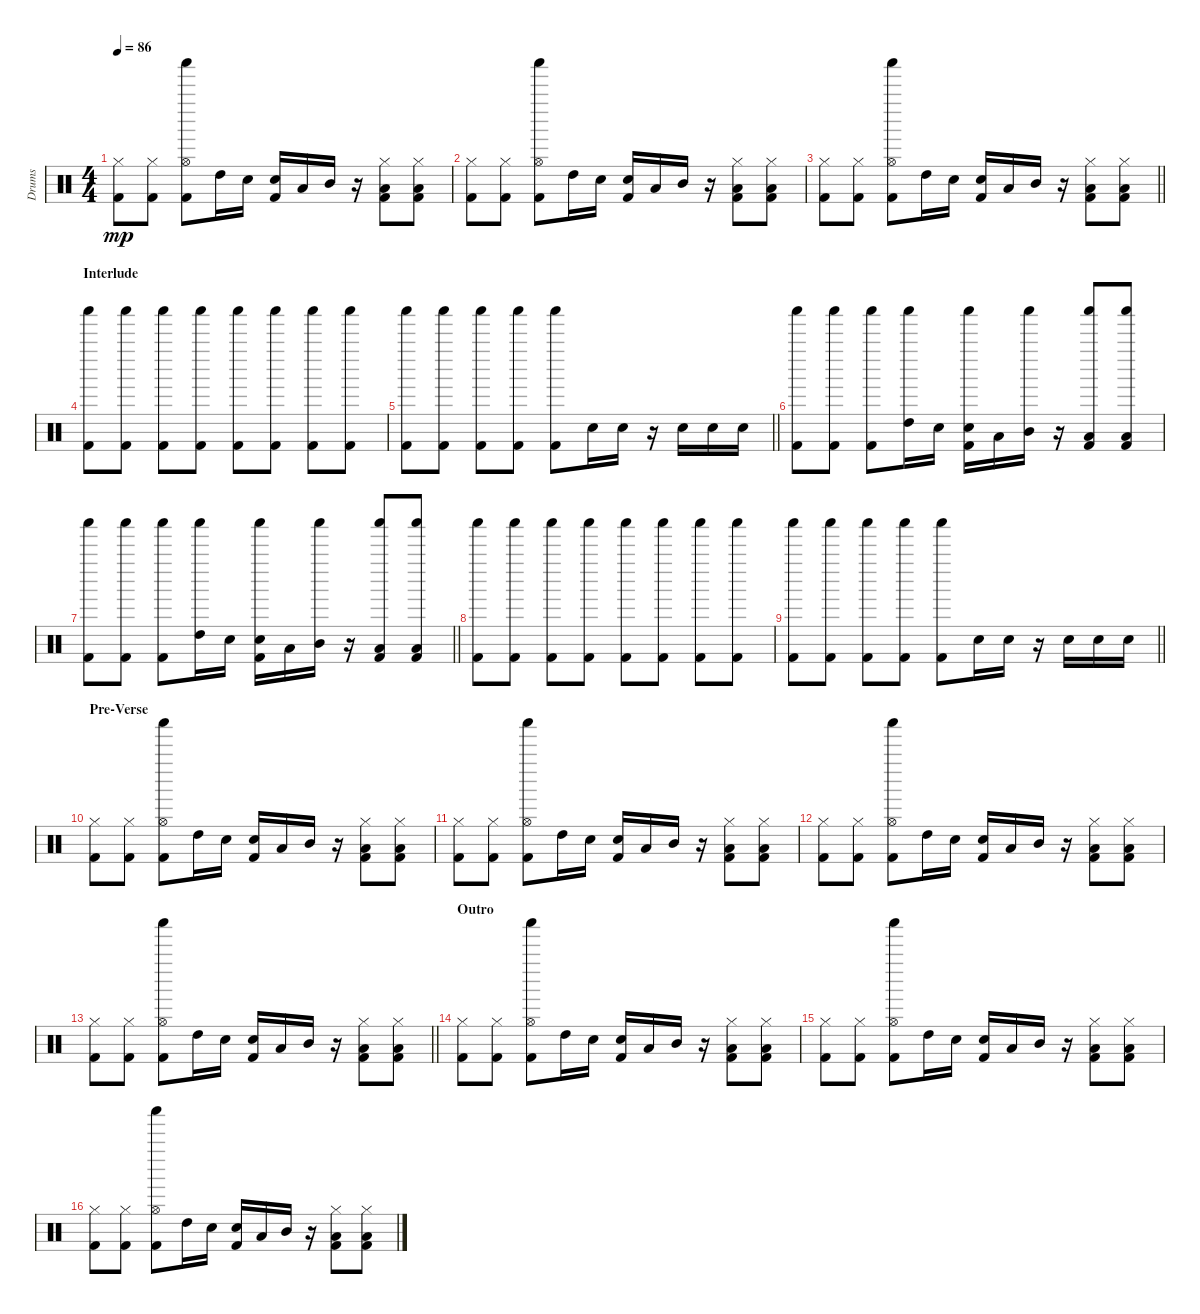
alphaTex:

\track ("Drums" "Drums") {instrument percussion}
\staff
\articulation defaults
\ts (4 4)
\tempo 86
\clef neutral
\ks c
("Hi-Hat (closed)" "Kick (hit) 2").8{dy mp} ("Hi-Hat (closed)" "Kick (hit) 2").8 ("Hi-Hat (open)" "Shaker (hit)" "Kick (hit) 2").8 "High Tom (hit)".16 "Electric Snare (hit)".16 ("Electric Snare (hit)" "Kick (hit) 2").16 "Low Tom (hit)".16 "Mid Tom (hit)".16 r.16 ("Hi-Hat (closed)" "Low Tom (hit)" "Kick (hit) 2").8 ("Hi-Hat (closed)" "Low Tom (hit)" "Kick (hit) 2").8 |
("Hi-Hat (closed)" "Kick (hit) 2").8 ("Hi-Hat (closed)" "Kick (hit) 2").8 ("Hi-Hat (open)" "Shaker (hit)" "Kick (hit) 2").8 "High Tom (hit)".16 "Electric Snare (hit)".16 ("Electric Snare (hit)" "Kick (hit) 2").16 "Low Tom (hit)".16 "Mid Tom (hit)".16 r.16 ("Hi-Hat (closed)" "Low Tom (hit)" "Kick (hit) 2").8 ("Hi-Hat (closed)" "Low Tom (hit)" "Kick (hit) 2").8 |
\barLineRight lightlight
("Hi-Hat (closed)" "Kick (hit) 2").8 ("Hi-Hat (closed)" "Kick (hit) 2").8 ("Hi-Hat (open)" "Shaker (hit)" "Kick (hit) 2").8 "High Tom (hit)".16 "Electric Snare (hit)".16 ("Electric Snare (hit)" "Kick (hit) 2").16 "Low Tom (hit)".16 "Mid Tom (hit)".16 r.16 ("Hi-Hat (closed)" "Low Tom (hit)" "Kick (hit) 2").8 ("Hi-Hat (closed)" "Low Tom (hit)" "Kick (hit) 2").8 |
\section ("" "Interlude")
("Shaker (hit)" "Kick (hit) 2").8 ("Shaker (hit)" "Kick (hit) 2").8 ("Shaker (hit)" "Kick (hit) 2").8 ("Shaker (hit)" "Kick (hit) 2").8 ("Shaker (hit)" "Kick (hit) 2").8 ("Shaker (hit)" "Kick (hit) 2").8 ("Shaker (hit)" "Kick (hit) 2").8 ("Shaker (hit)" "Kick (hit) 2").8 |
\barLineRight lightlight
("Shaker (hit)" "Kick (hit) 2").8 ("Shaker (hit)" "Kick (hit) 2").8 ("Shaker (hit)" "Kick (hit) 2").8 ("Shaker (hit)" "Kick (hit) 2").8 ("Shaker (hit)" "Kick (hit) 2").8 "Electric Snare (hit)".16 "Electric Snare (hit)".16 r.16 "Electric Snare (hit)".16 "Electric Snare (hit)".16 "Electric Snare (hit)".16 |
("Shaker (hit)" "Kick (hit) 2").8 ("Shaker (hit)" "Kick (hit) 2").8 ("Shaker (hit)" "Kick (hit) 2").8 ("Shaker (hit)" "High Tom (hit)").16 "Electric Snare (hit)".16 ("Shaker (hit)" "Electric Snare (hit)" "Kick (hit) 2").16 "Low Tom (hit)".16 ("Shaker (hit)" "Mid Tom (hit)").16 r.16 ("Shaker (hit)" "Low Tom (hit)" "Kick (hit) 2").8 ("Shaker (hit)" "Low Tom (hit)" "Kick (hit) 2").8 |
\barLineRight lightlight
("Shaker (hit)" "Kick (hit) 2").8 ("Shaker (hit)" "Kick (hit) 2").8 ("Shaker (hit)" "Kick (hit) 2").8 ("Shaker (hit)" "High Tom (hit)").16 "Electric Snare (hit)".16 ("Shaker (hit)" "Electric Snare (hit)" "Kick (hit) 2").16 "Low Tom (hit)".16 ("Shaker (hit)" "Mid Tom (hit)").16 r.16 ("Shaker (hit)" "Low Tom (hit)" "Kick (hit) 2").8 ("Shaker (hit)" "Low Tom (hit)" "Kick (hit) 2").8 |
("Shaker (hit)" "Kick (hit) 2").8 ("Shaker (hit)" "Kick (hit) 2").8 ("Shaker (hit)" "Kick (hit) 2").8 ("Shaker (hit)" "Kick (hit) 2").8 ("Shaker (hit)" "Kick (hit) 2").8 ("Shaker (hit)" "Kick (hit) 2").8 ("Shaker (hit)" "Kick (hit) 2").8 ("Shaker (hit)" "Kick (hit) 2").8 |
\barLineRight lightlight
("Shaker (hit)" "Kick (hit) 2").8 ("Shaker (hit)" "Kick (hit) 2").8 ("Shaker (hit)" "Kick (hit) 2").8 ("Shaker (hit)" "Kick (hit) 2").8 ("Shaker (hit)" "Kick (hit) 2").8 "Electric Snare (hit)".16 "Electric Snare (hit)".16 r.16 "Electric Snare (hit)".16 "Electric Snare (hit)".16 "Electric Snare (hit)".16 |
\section ("" "Pre-Verse")
("Hi-Hat (closed)" "Kick (hit) 2").8 ("Hi-Hat (closed)" "Kick (hit) 2").8 ("Hi-Hat (open)" "Shaker (hit)" "Kick (hit) 2").8 "High Tom (hit)".16 "Electric Snare (hit)".16 ("Electric Snare (hit)" "Kick (hit) 2").16 "Low Tom (hit)".16 "Mid Tom (hit)".16 r.16 ("Hi-Hat (closed)" "Low Tom (hit)" "Kick (hit) 2").8 ("Hi-Hat (closed)" "Low Tom (hit)" "Kick (hit) 2").8 |
("Hi-Hat (closed)" "Kick (hit) 2").8 ("Hi-Hat (closed)" "Kick (hit) 2").8 ("Hi-Hat (open)" "Shaker (hit)" "Kick (hit) 2").8 "High Tom (hit)".16 "Electric Snare (hit)".16 ("Electric Snare (hit)" "Kick (hit) 2").16 "Low Tom (hit)".16 "Mid Tom (hit)".16 r.16 ("Hi-Hat (closed)" "Low Tom (hit)" "Kick (hit) 2").8 ("Hi-Hat (closed)" "Low Tom (hit)" "Kick (hit) 2").8 |
("Hi-Hat (closed)" "Kick (hit) 2").8 ("Hi-Hat (closed)" "Kick (hit) 2").8 ("Hi-Hat (open)" "Shaker (hit)" "Kick (hit) 2").8 "High Tom (hit)".16 "Electric Snare (hit)".16 ("Electric Snare (hit)" "Kick (hit) 2").16 "Low Tom (hit)".16 "Mid Tom (hit)".16 r.16 ("Hi-Hat (closed)" "Low Tom (hit)" "Kick (hit) 2").8 ("Hi-Hat (closed)" "Low Tom (hit)" "Kick (hit) 2").8 |
\barLineRight lightlight
("Hi-Hat (closed)" "Kick (hit) 2").8 ("Hi-Hat (closed)" "Kick (hit) 2").8 ("Hi-Hat (open)" "Shaker (hit)" "Kick (hit) 2").8 "High Tom (hit)".16 "Electric Snare (hit)".16 ("Electric Snare (hit)" "Kick (hit) 2").16 "Low Tom (hit)".16 "Mid Tom (hit)".16 r.16 ("Hi-Hat (closed)" "Low Tom (hit)" "Kick (hit) 2").8 ("Hi-Hat (closed)" "Low Tom (hit)" "Kick (hit) 2").8 |
\section ("" "Outro")
("Hi-Hat (closed)" "Kick (hit) 2").8 ("Hi-Hat (closed)" "Kick (hit) 2").8 ("Hi-Hat (open)" "Shaker (hit)" "Kick (hit) 2").8 "High Tom (hit)".16 "Electric Snare (hit)".16 ("Electric Snare (hit)" "Kick (hit) 2").16 "Low Tom (hit)".16 "Mid Tom (hit)".16 r.16 ("Hi-Hat (closed)" "Low Tom (hit)" "Kick (hit) 2").8 ("Hi-Hat (closed)" "Low Tom (hit)" "Kick (hit) 2").8 |
("Hi-Hat (closed)" "Kick (hit) 2").8 ("Hi-Hat (closed)" "Kick (hit) 2").8 ("Hi-Hat (open)" "Shaker (hit)" "Kick (hit) 2").8 "High Tom (hit)".16 "Electric Snare (hit)".16 ("Electric Snare (hit)" "Kick (hit) 2").16 "Low Tom (hit)".16 "Mid Tom (hit)".16 r.16 ("Hi-Hat (closed)" "Low Tom (hit)" "Kick (hit) 2").8 ("Hi-Hat (closed)" "Low Tom (hit)" "Kick (hit) 2").8 |
("Hi-Hat (closed)" "Kick (hit) 2").8 ("Hi-Hat (closed)" "Kick (hit) 2").8 ("Hi-Hat (open)" "Shaker (hit)" "Kick (hit) 2").8 "High Tom (hit)".16 "Electric Snare (hit)".16 ("Electric Snare (hit)" "Kick (hit) 2").16 "Low Tom (hit)".16 "Mid Tom (hit)".16 r.16 ("Hi-Hat (closed)" "Low Tom (hit)" "Kick (hit) 2").8 ("Hi-Hat (closed)" "Low Tom (hit)" "Kick (hit) 2").8
